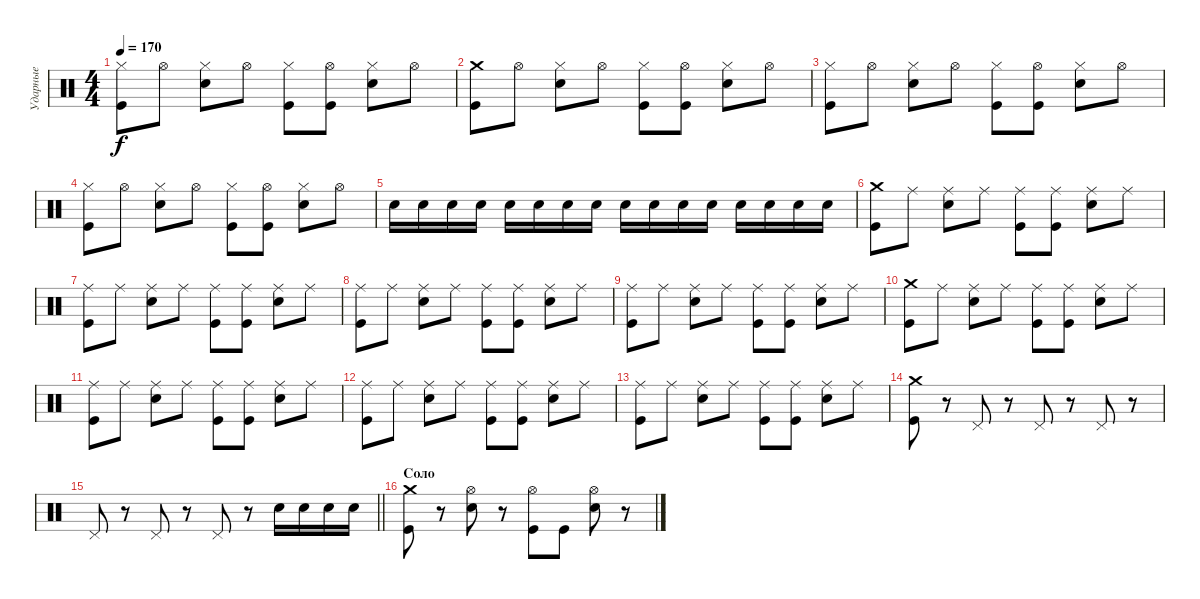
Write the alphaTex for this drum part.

\track ("Ударные" "Ударные") {instrument percussion}
\staff {score}
\articulation defaults
\ts (4 4)
\tempo 170
\clef neutral
\ks c
("Hi-Hat (closed)" "Kick (hit)").8{dy f} "Hi-Hat (open)".8 ("Hi-Hat (closed)" "Electric Snare (hit)").8 "Hi-Hat (open)".8 ("Hi-Hat (closed)" "Kick (hit)").8 ("Hi-Hat (open)" "Kick (hit)").8 ("Hi-Hat (closed)" "Electric Snare (hit)").8 "Hi-Hat (open)".8 |
("Crash medium (hit)" "Kick (hit)").8 "Hi-Hat (open)".8 ("Hi-Hat (closed)" "Electric Snare (hit)").8 "Hi-Hat (open)".8 ("Hi-Hat (closed)" "Kick (hit)").8 ("Hi-Hat (open)" "Kick (hit)").8 ("Hi-Hat (closed)" "Electric Snare (hit)").8 "Hi-Hat (open)".8 |
("Hi-Hat (closed)" "Kick (hit)").8 "Hi-Hat (open)".8 ("Hi-Hat (closed)" "Electric Snare (hit)").8 "Hi-Hat (open)".8 ("Hi-Hat (closed)" "Kick (hit)").8 ("Hi-Hat (open)" "Kick (hit)").8 ("Hi-Hat (closed)" "Electric Snare (hit)").8 "Hi-Hat (open)".8 |
("Hi-Hat (closed)" "Kick (hit)").8 "Hi-Hat (open)".8 ("Hi-Hat (closed)" "Electric Snare (hit)").8 "Hi-Hat (open)".8 ("Hi-Hat (closed)" "Kick (hit)").8 ("Hi-Hat (open)" "Kick (hit)").8 ("Hi-Hat (closed)" "Electric Snare (hit)").8 "Hi-Hat (open)".8 |
"Electric Snare (hit)".16 "Electric Snare (hit)".16 "Electric Snare (hit)".16 "Electric Snare (hit)".16 "Electric Snare (hit)".16 "Electric Snare (hit)".16 "Electric Snare (hit)".16 "Electric Snare (hit)".16 "Electric Snare (hit)".16 "Electric Snare (hit)".16 "Electric Snare (hit)".16 "Electric Snare (hit)".16 "Electric Snare (hit)".16 "Electric Snare (hit)".16 "Electric Snare (hit)".16 "Electric Snare (hit)".16 |
("Crash medium (hit)" "Kick (hit)").8 "Ride (middle)".8 ("Ride (middle)" "Electric Snare (hit)").8 "Ride (middle)".8 ("Ride (middle)" "Kick (hit)").8 ("Ride (middle)" "Kick (hit)").8 ("Ride (middle)" "Electric Snare (hit)").8 "Ride (middle)".8 |
("Ride (middle)" "Kick (hit)").8 "Ride (middle)".8 ("Ride (middle)" "Electric Snare (hit)").8 "Ride (middle)".8 ("Ride (middle)" "Kick (hit)").8 ("Ride (middle)" "Kick (hit)").8 ("Ride (middle)" "Electric Snare (hit)").8 "Ride (middle)".8 |
("Ride (middle)" "Kick (hit)").8 "Ride (middle)".8 ("Ride (middle)" "Electric Snare (hit)").8 "Ride (middle)".8 ("Ride (middle)" "Kick (hit)").8 ("Ride (middle)" "Kick (hit)").8 ("Ride (middle)" "Electric Snare (hit)").8 "Ride (middle)".8 |
("Ride (middle)" "Kick (hit)").8 "Ride (middle)".8 ("Ride (middle)" "Electric Snare (hit)").8 "Ride (middle)".8 ("Ride (middle)" "Kick (hit)").8 ("Ride (middle)" "Kick (hit)").8 ("Ride (middle)" "Electric Snare (hit)").8 "Ride (middle)".8 |
("Crash medium (hit)" "Kick (hit)").8 "Ride (middle)".8 ("Ride (middle)" "Electric Snare (hit)").8 "Ride (middle)".8 ("Ride (middle)" "Kick (hit)").8 ("Ride (middle)" "Kick (hit)").8 ("Ride (middle)" "Electric Snare (hit)").8 "Ride (middle)".8 |
("Ride (middle)" "Kick (hit)").8 "Ride (middle)".8 ("Ride (middle)" "Electric Snare (hit)").8 "Ride (middle)".8 ("Ride (middle)" "Kick (hit)").8 ("Ride (middle)" "Kick (hit)").8 ("Ride (middle)" "Electric Snare (hit)").8 "Ride (middle)".8 |
("Ride (middle)" "Kick (hit)").8 "Ride (middle)".8 ("Ride (middle)" "Electric Snare (hit)").8 "Ride (middle)".8 ("Ride (middle)" "Kick (hit)").8 ("Ride (middle)" "Kick (hit)").8 ("Ride (middle)" "Electric Snare (hit)").8 "Ride (middle)".8 |
("Ride (middle)" "Kick (hit)").8 "Ride (middle)".8 ("Ride (middle)" "Electric Snare (hit)").8 "Ride (middle)".8 ("Ride (middle)" "Kick (hit)").8 ("Ride (middle)" "Kick (hit)").8 ("Ride (middle)" "Electric Snare (hit)").8 "Ride (middle)".8 |
("Crash medium (hit)" "Kick (hit)").8 r.8 "Pedal Hi-Hat (hit)".8 r.8 "Pedal Hi-Hat (hit)".8 r.8 "Pedal Hi-Hat (hit)".8 r.8 |
\barLineRight lightlight "Pedal Hi-Hat (hit)".8
r.8 "Pedal Hi-Hat (hit)".8 r.8 "Pedal Hi-Hat (hit)".8 r.8 "Electric Snare (hit)".16 "Electric Snare (hit)".16 "Electric Snare (hit)".16 "Electric Snare (hit)".16 |
\section ("" "Соло")
("Crash medium (hit)" "Kick (hit)").8 r.8 ("Hi-Hat (open)" "Electric Snare (hit)").8 r.8 ("Hi-Hat (open)" "Kick (hit)").8 "Kick (hit)".8 ("Hi-Hat (open)" "Electric Snare (hit)").8 r.8
